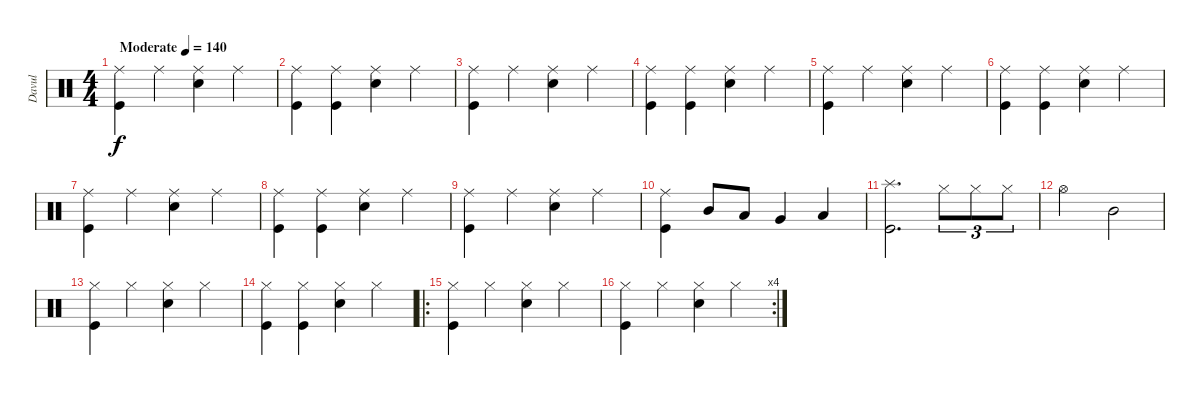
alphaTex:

\track ("Davul" "Davul") {instrument percussion}
\staff {score}
\articulation defaults
\ts (4 4)
\tempo (140 "Moderate")
\clef neutral
\ks c
("Ride (middle)" "Kick (hit)").4{dy f} "Ride (middle)".4 ("Ride (middle)" "Snare (hit) 2").4 "Ride (middle)".4 |
("Ride (middle)" "Kick (hit)").4 ("Ride (middle)" "Kick (hit)").4 ("Ride (middle)" "Snare (hit) 2").4 "Ride (middle)".4 |
("Ride (middle)" "Kick (hit)").4 "Ride (middle)".4 ("Ride (middle)" "Snare (hit) 2").4 "Ride (middle)".4 |
("Ride (middle)" "Kick (hit)").4 ("Ride (middle)" "Kick (hit)").4 ("Ride (middle)" "Snare (hit) 2").4 "Ride (middle)".4 |
("Ride (middle)" "Kick (hit)").4 "Ride (middle)".4 ("Ride (middle)" "Snare (hit) 2").4 "Ride (middle)".4 |
("Ride (middle)" "Kick (hit)").4 ("Ride (middle)" "Kick (hit)").4 ("Ride (middle)" "Snare (hit) 2").4 "Ride (middle)".4 |
("Ride (middle)" "Kick (hit)").4 "Ride (middle)".4 ("Ride (middle)" "Snare (hit) 2").4 "Ride (middle)".4 |
("Ride (middle)" "Kick (hit)").4 ("Ride (middle)" "Kick (hit)").4 ("Ride (middle)" "Snare (hit) 2").4 "Ride (middle)".4 |
("Ride (middle)" "Kick (hit)").4 "Ride (middle)".4 ("Ride (middle)" "Snare (hit) 2").4 "Ride (middle)".4 |
("Ride (middle)" "Kick (hit)").4 "Mid Tom (hit)".8 "Low Tom (hit)".8 "Very Low Tom (hit)".4 "Low Floor Tom (hit)".4 |
("Splash (hit)" "Kick (hit)").2{d} "Hi-Hat (closed)".8{tu (3 2)} "Hi-Hat (closed)".8{tu (3 2)} "Hi-Hat (closed)".8{tu (3 2)} |
"Hi-Hat (open)".2 "Mid Tom (hit)".2 |
("Hi-Hat (closed)" "Kick (hit)").4 "Hi-Hat (closed)".4 ("Hi-Hat (closed)" "Snare (hit) 2").4 "Hi-Hat (closed)".4 |
("Hi-Hat (closed)" "Kick (hit)").4 ("Hi-Hat (closed)" "Kick (hit)").4 ("Hi-Hat (closed)" "Snare (hit) 2").4 "Hi-Hat (closed)".4 |
\ro
("Hi-Hat (closed)" "Kick (hit)").4 "Hi-Hat (closed)".4 ("Hi-Hat (closed)" "Snare (hit) 2").4 "Hi-Hat (closed)".4 |
\rc 4
("Hi-Hat (closed)" "Kick (hit)").4 "Hi-Hat (closed)".4 ("Hi-Hat (closed)" "Snare (hit) 2").4 "Hi-Hat (closed)".4
